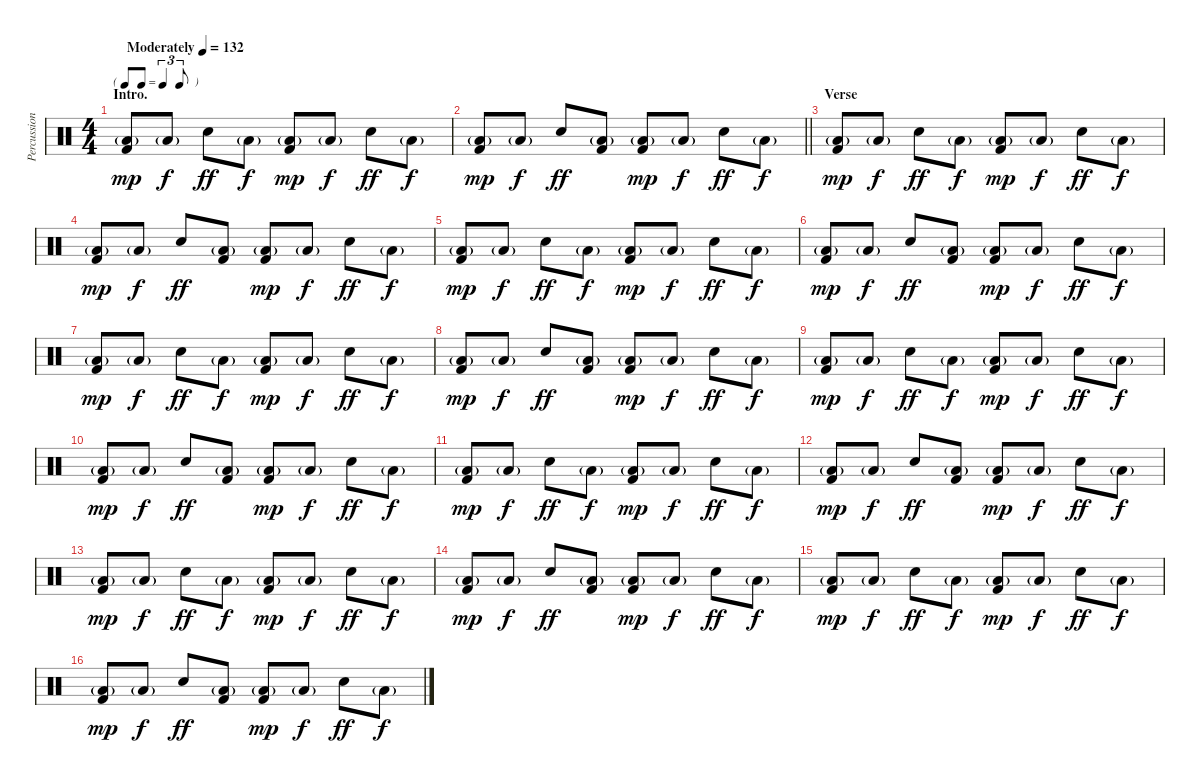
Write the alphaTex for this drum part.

\track ("Percussion" "Percussion") {instrument percussion}
\staff {score}
\articulation defaults
\ts (4 4)
\tf triplet8th
\section ("" "Intro.")
\tempo (132 "Moderately")
\clef neutral
\ks c
("Kick (hit) 2" "Low Floor Tom (hit)"{g}).8{dy mp} "Low Floor Tom (hit)"{g}.8{dy f} "Snare (hit) 2".8{dy ff} "Low Floor Tom (hit)"{g}.8{dy f} ("Kick (hit) 2" "Low Floor Tom (hit)"{g}).8{dy mp} "Low Floor Tom (hit)"{g}.8{dy f} "Snare (hit) 2".8{dy ff} "Low Floor Tom (hit)"{g}.8{dy f} |
\barLineRight lightlight
("Kick (hit) 2" "Low Floor Tom (hit)"{g}).8{dy mp} "Low Floor Tom (hit)"{g}.8{dy f} "Snare (hit) 2".8{dy ff} ("Kick (hit) 2" "Low Floor Tom (hit)"{g}).8 ("Kick (hit) 2" "Low Floor Tom (hit)"{g}).8{dy mp} "Low Floor Tom (hit)"{g}.8{dy f} "Snare (hit) 2".8{dy ff} "Low Floor Tom (hit)"{g}.8{dy f} |
\section ("" "Verse")
("Kick (hit) 2" "Low Floor Tom (hit)"{g}).8{dy mp} "Low Floor Tom (hit)"{g}.8{dy f} "Snare (hit) 2".8{dy ff} "Low Floor Tom (hit)"{g}.8{dy f} ("Kick (hit) 2" "Low Floor Tom (hit)"{g}).8{dy mp} "Low Floor Tom (hit)"{g}.8{dy f} "Snare (hit) 2".8{dy ff} "Low Floor Tom (hit)"{g}.8{dy f} |
("Kick (hit) 2" "Low Floor Tom (hit)"{g}).8{dy mp} "Low Floor Tom (hit)"{g}.8{dy f} "Snare (hit) 2".8{dy ff} ("Kick (hit) 2" "Low Floor Tom (hit)"{g}).8 ("Kick (hit) 2" "Low Floor Tom (hit)"{g}).8{dy mp} "Low Floor Tom (hit)"{g}.8{dy f} "Snare (hit) 2".8{dy ff} "Low Floor Tom (hit)"{g}.8{dy f} |
("Kick (hit) 2" "Low Floor Tom (hit)"{g}).8{dy mp} "Low Floor Tom (hit)"{g}.8{dy f} "Snare (hit) 2".8{dy ff} "Low Floor Tom (hit)"{g}.8{dy f} ("Kick (hit) 2" "Low Floor Tom (hit)"{g}).8{dy mp} "Low Floor Tom (hit)"{g}.8{dy f} "Snare (hit) 2".8{dy ff} "Low Floor Tom (hit)"{g}.8{dy f} |
("Kick (hit) 2" "Low Floor Tom (hit)"{g}).8{dy mp} "Low Floor Tom (hit)"{g}.8{dy f} "Snare (hit) 2".8{dy ff} ("Kick (hit) 2" "Low Floor Tom (hit)"{g}).8 ("Kick (hit) 2" "Low Floor Tom (hit)"{g}).8{dy mp} "Low Floor Tom (hit)"{g}.8{dy f} "Snare (hit) 2".8{dy ff} "Low Floor Tom (hit)"{g}.8{dy f} |
("Kick (hit) 2" "Low Floor Tom (hit)"{g}).8{dy mp} "Low Floor Tom (hit)"{g}.8{dy f} "Snare (hit) 2".8{dy ff} "Low Floor Tom (hit)"{g}.8{dy f} ("Kick (hit) 2" "Low Floor Tom (hit)"{g}).8{dy mp} "Low Floor Tom (hit)"{g}.8{dy f} "Snare (hit) 2".8{dy ff} "Low Floor Tom (hit)"{g}.8{dy f} |
("Kick (hit) 2" "Low Floor Tom (hit)"{g}).8{dy mp} "Low Floor Tom (hit)"{g}.8{dy f} "Snare (hit) 2".8{dy ff} ("Kick (hit) 2" "Low Floor Tom (hit)"{g}).8 ("Kick (hit) 2" "Low Floor Tom (hit)"{g}).8{dy mp} "Low Floor Tom (hit)"{g}.8{dy f} "Snare (hit) 2".8{dy ff} "Low Floor Tom (hit)"{g}.8{dy f} |
("Kick (hit) 2" "Low Floor Tom (hit)"{g}).8{dy mp} "Low Floor Tom (hit)"{g}.8{dy f} "Snare (hit) 2".8{dy ff} "Low Floor Tom (hit)"{g}.8{dy f} ("Kick (hit) 2" "Low Floor Tom (hit)"{g}).8{dy mp} "Low Floor Tom (hit)"{g}.8{dy f} "Snare (hit) 2".8{dy ff} "Low Floor Tom (hit)"{g}.8{dy f} |
("Kick (hit) 2" "Low Floor Tom (hit)"{g}).8{dy mp} "Low Floor Tom (hit)"{g}.8{dy f} "Snare (hit) 2".8{dy ff} ("Kick (hit) 2" "Low Floor Tom (hit)"{g}).8 ("Kick (hit) 2" "Low Floor Tom (hit)"{g}).8{dy mp} "Low Floor Tom (hit)"{g}.8{dy f} "Snare (hit) 2".8{dy ff} "Low Floor Tom (hit)"{g}.8{dy f} |
("Kick (hit) 2" "Low Floor Tom (hit)"{g}).8{dy mp} "Low Floor Tom (hit)"{g}.8{dy f} "Snare (hit) 2".8{dy ff} "Low Floor Tom (hit)"{g}.8{dy f} ("Kick (hit) 2" "Low Floor Tom (hit)"{g}).8{dy mp} "Low Floor Tom (hit)"{g}.8{dy f} "Snare (hit) 2".8{dy ff} "Low Floor Tom (hit)"{g}.8{dy f} |
("Kick (hit) 2" "Low Floor Tom (hit)"{g}).8{dy mp} "Low Floor Tom (hit)"{g}.8{dy f} "Snare (hit) 2".8{dy ff} ("Kick (hit) 2" "Low Floor Tom (hit)"{g}).8 ("Kick (hit) 2" "Low Floor Tom (hit)"{g}).8{dy mp} "Low Floor Tom (hit)"{g}.8{dy f} "Snare (hit) 2".8{dy ff} "Low Floor Tom (hit)"{g}.8{dy f} |
("Kick (hit) 2" "Low Floor Tom (hit)"{g}).8{dy mp} "Low Floor Tom (hit)"{g}.8{dy f} "Snare (hit) 2".8{dy ff} "Low Floor Tom (hit)"{g}.8{dy f} ("Kick (hit) 2" "Low Floor Tom (hit)"{g}).8{dy mp} "Low Floor Tom (hit)"{g}.8{dy f} "Snare (hit) 2".8{dy ff} "Low Floor Tom (hit)"{g}.8{dy f} |
("Kick (hit) 2" "Low Floor Tom (hit)"{g}).8{dy mp} "Low Floor Tom (hit)"{g}.8{dy f} "Snare (hit) 2".8{dy ff} ("Kick (hit) 2" "Low Floor Tom (hit)"{g}).8 ("Kick (hit) 2" "Low Floor Tom (hit)"{g}).8{dy mp} "Low Floor Tom (hit)"{g}.8{dy f} "Snare (hit) 2".8{dy ff} "Low Floor Tom (hit)"{g}.8{dy f} |
("Kick (hit) 2" "Low Floor Tom (hit)"{g}).8{dy mp} "Low Floor Tom (hit)"{g}.8{dy f} "Snare (hit) 2".8{dy ff} "Low Floor Tom (hit)"{g}.8{dy f} ("Kick (hit) 2" "Low Floor Tom (hit)"{g}).8{dy mp} "Low Floor Tom (hit)"{g}.8{dy f} "Snare (hit) 2".8{dy ff} "Low Floor Tom (hit)"{g}.8{dy f} |
("Kick (hit) 2" "Low Floor Tom (hit)"{g}).8{dy mp} "Low Floor Tom (hit)"{g}.8{dy f} "Snare (hit) 2".8{dy ff} ("Kick (hit) 2" "Low Floor Tom (hit)"{g}).8 ("Kick (hit) 2" "Low Floor Tom (hit)"{g}).8{dy mp} "Low Floor Tom (hit)"{g}.8{dy f} "Snare (hit) 2".8{dy ff} "Low Floor Tom (hit)"{g}.8{dy f}
